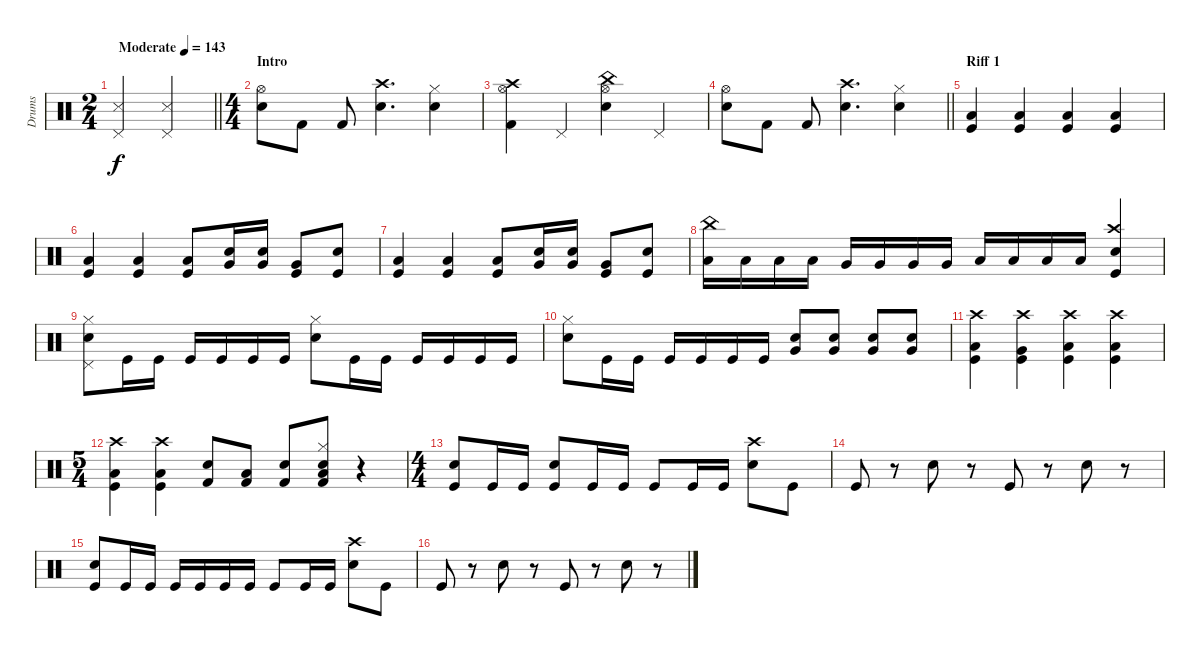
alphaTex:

\track ("Drums" "Drums") {instrument percussion}
\staff {score}
\articulation defaults
\ts (2 4)
\tempo (143 "Moderate")
\clef neutral
\barLineRight lightlight
\ks c
("Pedal Hi-Hat (hit)" "Metronome (hit)").4{dy f} ("Pedal Hi-Hat (hit)" "Metronome (hit)").4 |
\ts (4 4)
\section ("" "Intro")
("Hi-Hat (open)" "Snare (hit) 2").8 "Kick (hit) 2".8 "Kick (hit) 2".8 ("Crash high (hit)" "Snare (hit) 2").4{d} ("Hi-Hat (closed)" "Snare (hit) 2").4 |
("Hi-Hat (open)" "Crash high (hit)" "Kick (hit) 2").4 "Pedal Hi-Hat (hit)".4 ("China (hit)" "Hi-Hat (open)" "Snare (hit) 2").4 "Pedal Hi-Hat (hit)".4 |
\barLineRight lightlight
("Hi-Hat (open)" "Snare (hit) 2").8 "Kick (hit) 2".8 "Kick (hit) 2".8 ("Crash high (hit)" "Snare (hit) 2").4{d} ("Hi-Hat (closed)" "Snare (hit) 2").4 |
\section ("" "Riff 1")
("Kick (hit)" "Low Floor Tom (hit)").4 ("Kick (hit)" "Low Floor Tom (hit)").4 ("Kick (hit)" "Low Floor Tom (hit)").4 ("Kick (hit)" "Low Floor Tom (hit)").4 |
("Kick (hit)" "Low Floor Tom (hit)").4 ("Kick (hit)" "Low Floor Tom (hit)").4 ("Kick (hit)" "Low Floor Tom (hit)").8 ("Very Low Tom (hit)" "Snare (hit) 2").16 ("Very Low Tom (hit)" "Snare (hit) 2").16 ("Kick (hit)" "Very Low Tom (hit)").8 ("Snare (hit) 2" "Kick (hit)").8 |
("Kick (hit)" "Low Floor Tom (hit)").4 ("Kick (hit)" "Low Floor Tom (hit)").4 ("Kick (hit)" "Low Floor Tom (hit)").8 ("Very Low Tom (hit)" "Snare (hit) 2").16 ("Very Low Tom (hit)" "Snare (hit) 2").16 ("Kick (hit)" "Very Low Tom (hit)").8 ("Snare (hit) 2" "Kick (hit)").8 |
("China (hit)" "Low Tom (hit)").16 "Low Tom (hit)".16 "Low Tom (hit)".16 "Low Tom (hit)".16 "Very Low Tom (hit)".16 "Very Low Tom (hit)".16 "Very Low Tom (hit)".16 "Very Low Tom (hit)".16 "Low Floor Tom (hit)".16 "Low Floor Tom (hit)".16 "Low Floor Tom (hit)".16 "Low Floor Tom (hit)".16 ("Crash high (hit)" "Snare (hit) 2" "Kick (hit)").4 |
("Pedal Hi-Hat (hit)" "Hi-Hat (closed)" "Snare (hit) 2").8 "Kick (hit)".16 "Kick (hit)".16 "Kick (hit)".16 "Kick (hit)".16 "Kick (hit)".16 "Kick (hit)".16 ("Hi-Hat (closed)" "Snare (hit) 2").8 "Kick (hit)".16 "Kick (hit)".16 "Kick (hit)".16 "Kick (hit)".16 "Kick (hit)".16 "Kick (hit)".16 |
("Hi-Hat (closed)" "Snare (hit) 2").8 "Kick (hit)".16 "Kick (hit)".16 "Kick (hit)".16 "Kick (hit)".16 "Kick (hit)".16 "Kick (hit)".16 ("Snare (hit) 2" "Very Low Tom (hit)").8 ("Snare (hit) 2" "Very Low Tom (hit)").8 ("Snare (hit) 2" "Very Low Tom (hit)").8 ("Snare (hit) 2" "Very Low Tom (hit)").8 |
("Crash high (hit)" "Kick (hit)" "Low Floor Tom (hit)").4 ("Crash high (hit)" "Kick (hit)" "Very Low Tom (hit)").4 ("Crash high (hit)" "Kick (hit)" "Low Floor Tom (hit)").4 ("Crash high (hit)" "Kick (hit)" "Low Floor Tom (hit)").4 |
\ts (5 4)
("Crash high (hit)" "Kick (hit)" "Low Floor Tom (hit)").4 ("Crash high (hit)" "Kick (hit)" "Low Floor Tom (hit)").4 ("Snare (hit) 2" "Kick (hit) 2").8 ("Low Floor Tom (hit)" "Kick (hit) 2").8 ("Snare (hit) 2" "Kick (hit) 2").8 ("Snare (hit) 2" "Low Floor Tom (hit)" "Hi-Hat (closed)" "Kick (hit) 2").8 r.4 |
\ts (4 4)
("Snare (hit) 2" "Kick (hit)").8 "Kick (hit)".16 "Kick (hit)".16 ("Snare (hit) 2" "Kick (hit)").8 "Kick (hit)".16 "Kick (hit)".16 "Kick (hit)".8 "Kick (hit)".16 "Kick (hit)".16 ("Crash high (hit)" "Snare (hit) 2").8 "Kick (hit)".8 |
"Kick (hit)".8 r.8 "Snare (hit) 2".8 r.8 "Kick (hit)".8 r.8 "Snare (hit) 2".8 r.8 |
("Snare (hit) 2" "Kick (hit)").8 "Kick (hit)".16 "Kick (hit)".16 "Kick (hit)".16 "Kick (hit)".16 "Kick (hit)".16 "Kick (hit)".16 "Kick (hit)".8 "Kick (hit)".16 "Kick (hit)".16 ("Crash high (hit)" "Snare (hit) 2").8 "Kick (hit)".8 |
"Kick (hit)".8 r.8 "Snare (hit) 2".8 r.8 "Kick (hit)".8 r.8 "Snare (hit) 2".8 r.8
